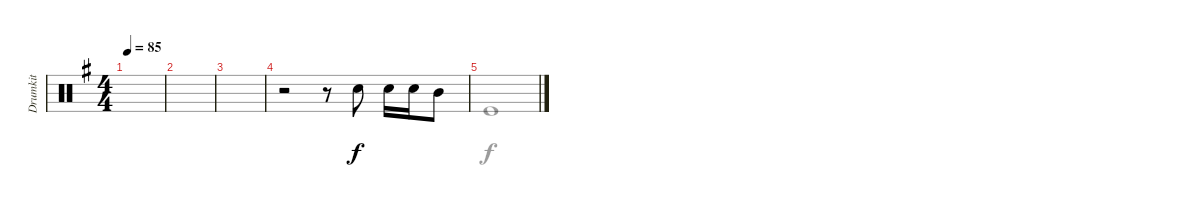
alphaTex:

\track ("Drumkit" "Drumkit") {instrument percussion}
\staff {score}
\articulation defaults
\voice
\ts (4 4)
\tempo 85
\clef neutral
\ks eminor
|
|
|
r.2 r.8 "Snare (hit) 2".8 "Snare (hit) 2".16 "Snare (hit) 2".16 "Mid Tom (hit)".8 |
\voice
\clef neutral
\ottava regular
\simile none
\ks eminor
|
|
|
|
"Kick (hit)".1
